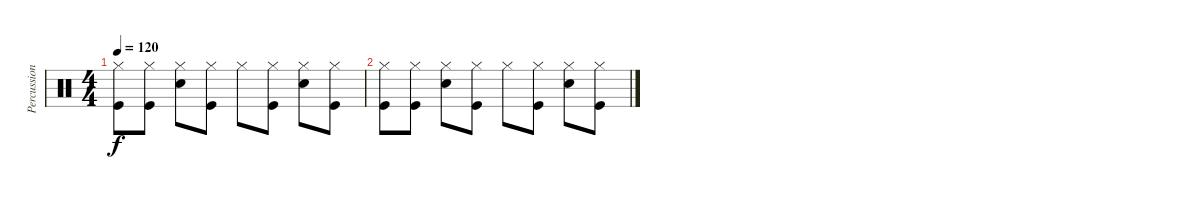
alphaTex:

\track ("Percussion" "Percussion") {instrument percussion}
\staff {score}
\articulation defaults
\ts (4 4)
\tempo 120
\clef neutral
\ks c
("Kick (hit)" "Hi-Hat (closed)").8{dy f} ("Kick (hit)" "Hi-Hat (closed)").8 ("Electric Snare (hit)" "Hi-Hat (closed)").8 ("Kick (hit)" "Hi-Hat (closed)").8 "Hi-Hat (closed)".8 ("Kick (hit)" "Hi-Hat (closed)").8 ("Electric Snare (hit)" "Hi-Hat (closed)").8 ("Kick (hit)" "Hi-Hat (closed)").8 |
("Kick (hit)" "Hi-Hat (closed)").8 ("Kick (hit)" "Hi-Hat (closed)").8 ("Electric Snare (hit)" "Hi-Hat (closed)").8 ("Kick (hit)" "Hi-Hat (closed)").8 "Hi-Hat (closed)".8 ("Kick (hit)" "Hi-Hat (closed)").8 ("Electric Snare (hit)" "Hi-Hat (closed)").8 ("Kick (hit)" "Hi-Hat (closed)").8
